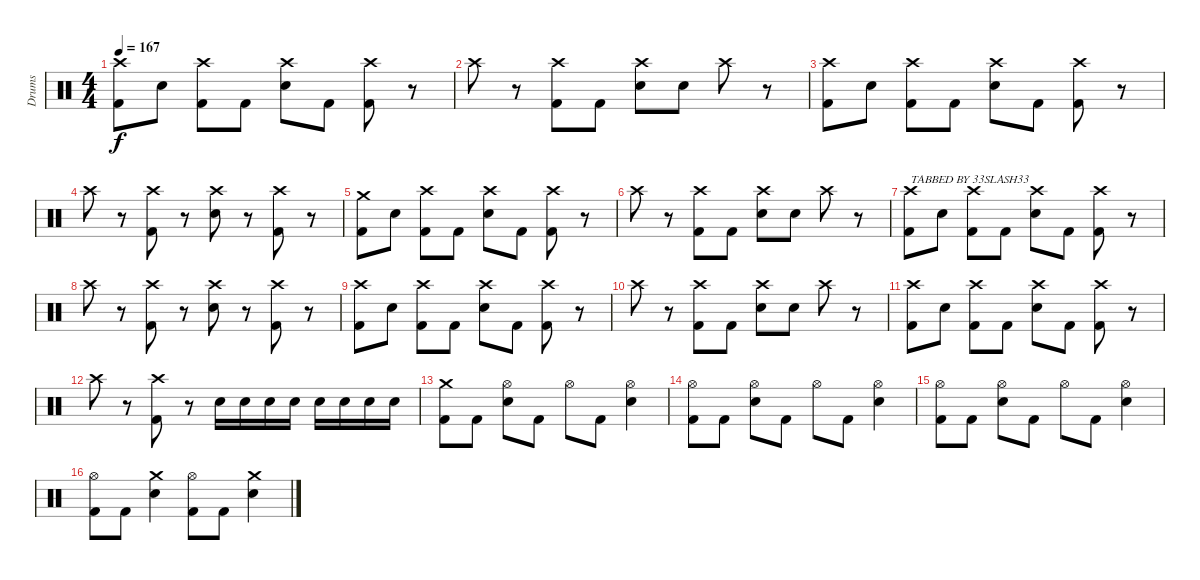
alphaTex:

\track ("Drums" "Drums") {instrument percussion}
\staff {score}
\articulation defaults
\ts (4 4)
\tempo 167
\clef neutral
\ks c
("Crash high (hit)" "Kick (hit) 2").8{dy f} "Snare (hit) 2".8 ("Crash high (hit)" "Kick (hit) 2").8 "Kick (hit) 2".8 ("Crash high (hit)" "Snare (hit) 2").8 "Kick (hit) 2".8 ("Crash high (hit)" "Kick (hit) 2").8 r.8 |
"Crash high (hit)".8 r.8 ("Crash high (hit)" "Kick (hit) 2").8 "Kick (hit) 2".8 ("Crash high (hit)" "Snare (hit) 2").8 "Snare (hit) 2".8 "Crash high (hit)".8 r.8 |
("Crash high (hit)" "Kick (hit) 2").8 "Snare (hit) 2".8 ("Crash high (hit)" "Kick (hit) 2").8 "Kick (hit) 2".8 ("Crash high (hit)" "Snare (hit) 2").8 "Kick (hit) 2".8 ("Crash high (hit)" "Kick (hit) 2").8 r.8 |
"Crash high (hit)".8 r.8 ("Crash high (hit)" "Kick (hit) 2").8 r.8 ("Crash high (hit)" "Snare (hit) 2").8 r.8 ("Crash high (hit)" "Kick (hit) 2").8 r.8 |
("Crash medium (hit)" "Kick (hit) 2").8 "Snare (hit) 2".8 ("Crash high (hit)" "Kick (hit) 2").8 "Kick (hit) 2".8 ("Crash high (hit)" "Snare (hit) 2").8 "Kick (hit) 2".8 ("Crash high (hit)" "Kick (hit) 2").8 r.8 |
"Crash high (hit)".8 r.8 ("Crash high (hit)" "Kick (hit) 2").8 "Kick (hit) 2".8 ("Crash high (hit)" "Snare (hit) 2").8 "Snare (hit) 2".8 "Crash high (hit)".8 r.8 |
("Crash high (hit)" "Kick (hit) 2").8{txt "TABBED BY 33SLASH33"} "Snare (hit) 2".8 ("Crash high (hit)" "Kick (hit) 2").8 "Kick (hit) 2".8 ("Crash high (hit)" "Snare (hit) 2").8 "Kick (hit) 2".8 ("Crash high (hit)" "Kick (hit) 2").8 r.8 |
"Crash high (hit)".8 r.8 ("Crash high (hit)" "Kick (hit) 2").8 r.8 ("Crash high (hit)" "Snare (hit) 2").8 r.8 ("Crash high (hit)" "Kick (hit) 2").8 r.8 |
("Crash high (hit)" "Kick (hit) 2").8 "Snare (hit) 2".8 ("Crash high (hit)" "Kick (hit) 2").8 "Kick (hit) 2".8 ("Crash high (hit)" "Snare (hit) 2").8 "Kick (hit) 2".8 ("Crash high (hit)" "Kick (hit) 2").8 r.8 |
"Crash high (hit)".8 r.8 ("Crash high (hit)" "Kick (hit) 2").8 "Kick (hit) 2".8 ("Crash high (hit)" "Snare (hit) 2").8 "Snare (hit) 2".8 "Crash high (hit)".8 r.8 |
("Crash high (hit)" "Kick (hit) 2").8 "Snare (hit) 2".8 ("Crash high (hit)" "Kick (hit) 2").8 "Kick (hit) 2".8 ("Crash high (hit)" "Snare (hit) 2").8 "Kick (hit) 2".8 ("Crash high (hit)" "Kick (hit) 2").8 r.8 |
"Crash high (hit)".8 r.8 ("Crash high (hit)" "Kick (hit) 2").8 r.8 "Snare (hit) 2".16 "Snare (hit) 2".16 "Snare (hit) 2".16 "Snare (hit) 2".16 "Snare (hit) 2".16 "Snare (hit) 2".16 "Snare (hit) 2".16 "Snare (hit) 2".16 |
("Crash medium (hit)" "Kick (hit) 2").8 "Kick (hit) 2".8 ("Hi-Hat (open)" "Snare (hit) 2").8 "Kick (hit) 2".8 "Hi-Hat (open)".8 "Kick (hit) 2".8 ("Hi-Hat (open)" "Snare (hit) 2").4 |
("Hi-Hat (open)" "Kick (hit) 2").8 "Kick (hit) 2".8 ("Hi-Hat (open)" "Snare (hit) 2").8 "Kick (hit) 2".8 "Hi-Hat (open)".8 "Kick (hit) 2".8 ("Hi-Hat (open)" "Snare (hit) 2").4 |
("Hi-Hat (open)" "Kick (hit) 2").8 "Kick (hit) 2".8 ("Hi-Hat (open)" "Snare (hit) 2").8 "Kick (hit) 2".8 "Hi-Hat (open)".8 "Kick (hit) 2".8 ("Hi-Hat (open)" "Snare (hit) 2").4 |
("Hi-Hat (open)" "Kick (hit) 2").8 "Kick (hit) 2".8 ("Crash medium (hit)" "Snare (hit) 2").4 ("Hi-Hat (open)" "Kick (hit) 2").8 "Kick (hit) 2".8 ("Crash medium (hit)" "Snare (hit) 2").4
